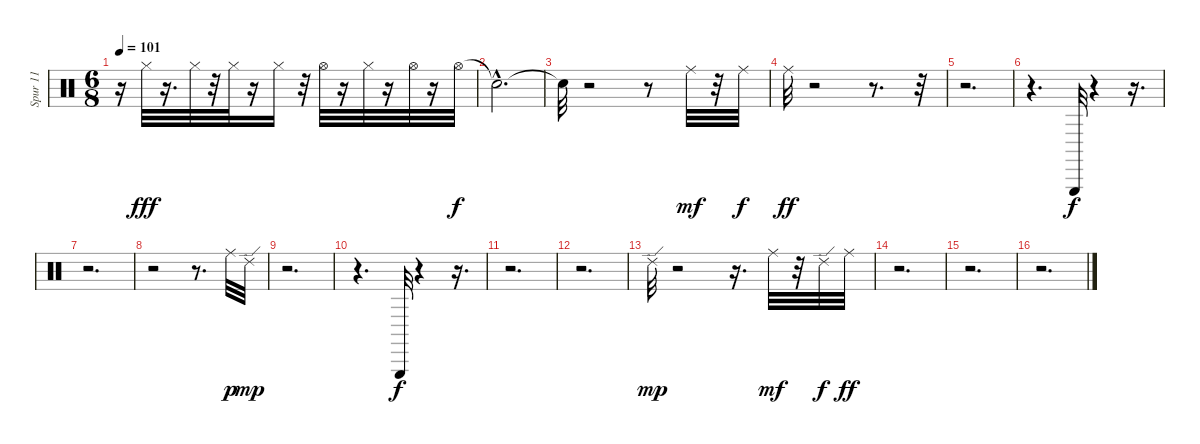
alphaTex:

\track ("Spur 11" "Spur 11") {instrument percussion}
\staff {score}
\articulation defaults
\ts (6 8)
\tempo 101
\clef neutral
\ks c
r.16{dy fff} "Hi-Hat (closed)".32 r.16{d} "Hi-Hat (closed)".32 r.32 "Hi-Hat (closed)".32 r.16 "Hi-Hat (closed)".16 r.32 "Hi-Hat (open)".32 r.16 "Hi-Hat (closed)".32 r.16 "Hi-Hat (open)".32 r.16 "Hi-Hat (open)".32{dy f} |
"Snare (hit)"{hac t}.2{d} |
"Snare (hit)"{t}.32 r.2 r.8 "Ride (middle)".32{dy mf} r.32 "Ride (middle)".32{dy f} |
"Ride (middle)".32{dy ff} r.2 r.8{d} r.32 |
r.2{d} |
r.4{d} "Triangle (hit)".32{dy f} r.4 r.16{d} |
r.2{d} |
r.2 r.8{d} "Ride (middle)".32{dy p} "Ride (edge) 2".32{dy mp} |
r.2{d} |
r.4{d} "Triangle (hit)".32{dy f} r.4 r.16{d} |
r.2{d} |
r.2{d} |
"Ride (edge) 2".32{dy mp} r.2 r.16{d} "Ride (middle)".32{dy mf} r.32 "Ride (edge) 2".32{dy f} "Ride (middle)".32{dy ff} |
r.2{d} |
r.2{d} |
r.2{d}
